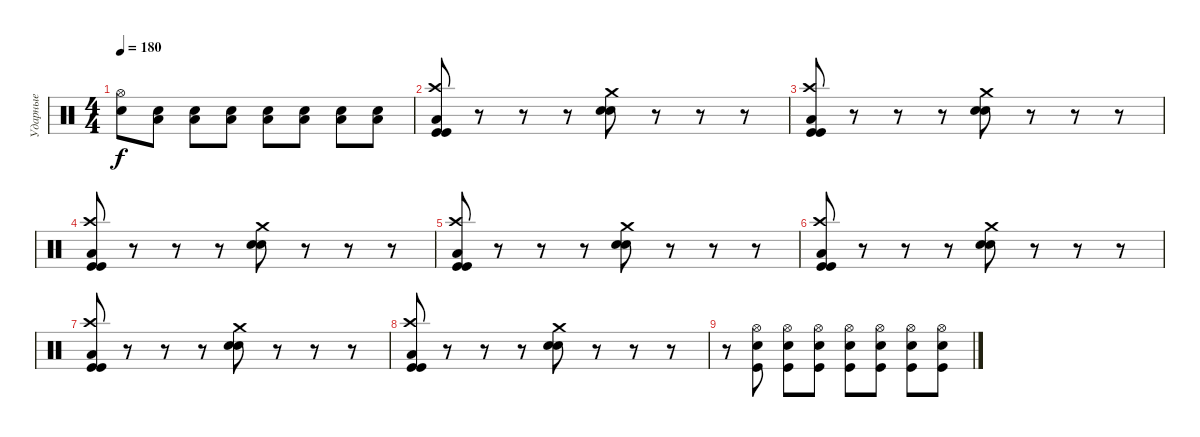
\track ("Ударные" "Ударные") {instrument percussion}
\staff {score}
\articulation defaults
\ts (4 4)
\tempo 180
\clef neutral
\ks c
("Hi-Hat (open)" "Electric Snare (hit)").8{dy f} ("Low Tom (hit)" "Electric Snare (hit)").8 ("Low Tom (hit)" "Electric Snare (hit)").8 ("Low Tom (hit)" "Electric Snare (hit)").8 ("Low Tom (hit)" "Electric Snare (hit)").8 ("Low Tom (hit)" "Electric Snare (hit)").8 ("Low Tom (hit)" "Electric Snare (hit)").8 ("Low Tom (hit)" "Electric Snare (hit)").8 |
("Crash high (hit)" "Kick (hit)" "Kick (hit)" "Low Tom (hit)").8 r.8 r.8 r.8 ("Crash medium (hit)" "Electric Snare (hit)" "Electric Snare (hit)").8 r.8 r.8 r.8 |
("Crash high (hit)" "Kick (hit)" "Kick (hit)" "Low Tom (hit)").8 r.8 r.8 r.8 ("Crash medium (hit)" "Electric Snare (hit)" "Electric Snare (hit)").8 r.8 r.8 r.8 |
("Crash high (hit)" "Kick (hit)" "Kick (hit)" "Low Tom (hit)").8 r.8 r.8 r.8 ("Crash medium (hit)" "Electric Snare (hit)" "Electric Snare (hit)").8 r.8 r.8 r.8 |
("Crash high (hit)" "Kick (hit)" "Kick (hit)" "Low Tom (hit)").8 r.8 r.8 r.8 ("Crash medium (hit)" "Electric Snare (hit)" "Electric Snare (hit)").8 r.8 r.8 r.8 |
("Crash high (hit)" "Kick (hit)" "Kick (hit)" "Low Tom (hit)").8 r.8 r.8 r.8 ("Crash medium (hit)" "Electric Snare (hit)" "Electric Snare (hit)").8 r.8 r.8 r.8 |
("Crash high (hit)" "Kick (hit)" "Kick (hit)" "Low Tom (hit)").8 r.8 r.8 r.8 ("Crash medium (hit)" "Electric Snare (hit)" "Electric Snare (hit)").8 r.8 r.8 r.8 |
("Crash high (hit)" "Kick (hit)" "Kick (hit)" "Low Tom (hit)").8 r.8 r.8 r.8 ("Crash medium (hit)" "Electric Snare (hit)" "Electric Snare (hit)").8 r.8 r.8 r.8 |
r.8 ("Hi-Hat (open)" "Electric Snare (hit)" "Kick (hit)").8 ("Hi-Hat (open)" "Electric Snare (hit)" "Kick (hit)").8 ("Hi-Hat (open)" "Electric Snare (hit)" "Kick (hit)").8 ("Hi-Hat (open)" "Electric Snare (hit)" "Kick (hit)").8 ("Hi-Hat (open)" "Electric Snare (hit)" "Kick (hit)").8 ("Hi-Hat (open)" "Electric Snare (hit)" "Kick (hit)").8 ("Hi-Hat (open)" "Electric Snare (hit)" "Kick (hit)").8
